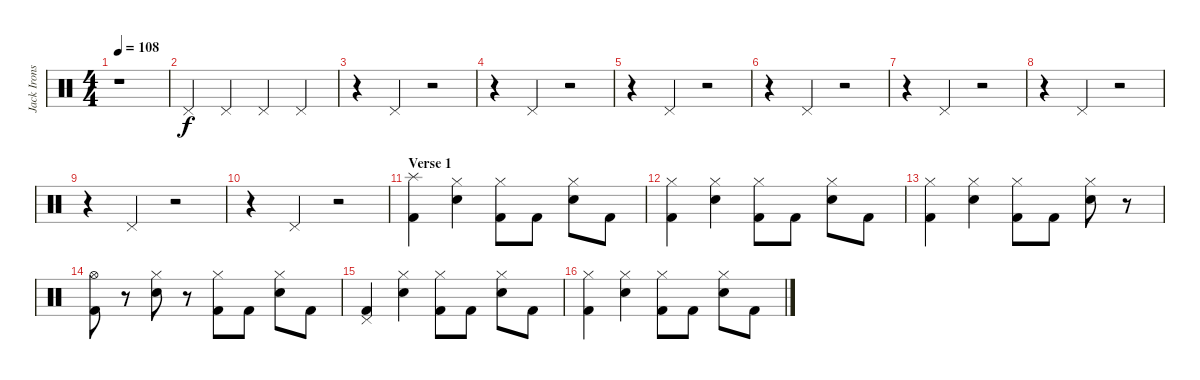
\track ("Jack Irons" "Jack Irons") {instrument percussion}
\staff {score}
\articulation defaults
\ts (4 4)
\tempo 108
\clef neutral
\ks c
r.1{dy f} |
"Pedal Hi-Hat (hit)".4 "Pedal Hi-Hat (hit)".4 "Pedal Hi-Hat (hit)".4 "Pedal Hi-Hat (hit)".4 |
r.4 "Pedal Hi-Hat (hit)".4 r.2 |
r.4 "Pedal Hi-Hat (hit)".4 r.2 |
r.4 "Pedal Hi-Hat (hit)".4 r.2 |
r.4 "Pedal Hi-Hat (hit)".4 r.2 |
r.4 "Pedal Hi-Hat (hit)".4 r.2 |
r.4 "Pedal Hi-Hat (hit)".4 r.2 |
r.4 "Pedal Hi-Hat (hit)".4 r.2 |
r.4 "Pedal Hi-Hat (hit)".4 r.2 |
\section ("" "Verse 1")
("Splash (hit)" "Kick (hit) 2").4 ("Electric Snare (hit)" "Hi-Hat (closed)").4 ("Kick (hit) 2" "Hi-Hat (closed)").8 "Kick (hit) 2".8 ("Electric Snare (hit)" "Hi-Hat (closed)").8 "Kick (hit) 2".8 |
("Kick (hit) 2" "Hi-Hat (closed)").4 ("Electric Snare (hit)" "Hi-Hat (closed)").4 ("Kick (hit) 2" "Hi-Hat (closed)").8 "Kick (hit) 2".8 ("Electric Snare (hit)" "Hi-Hat (closed)").8 "Kick (hit) 2".8 |
("Kick (hit) 2" "Hi-Hat (closed)").4 ("Electric Snare (hit)" "Hi-Hat (closed)").4 ("Kick (hit) 2" "Hi-Hat (closed)").8 "Kick (hit) 2".8 ("Electric Snare (hit)" "Hi-Hat (closed)").8 r.8 |
("Kick (hit) 2" "Hi-Hat (open)").8 r.8 ("Electric Snare (hit)" "Hi-Hat (closed)").8 r.8 ("Kick (hit) 2" "Hi-Hat (closed)").8 "Kick (hit) 2".8 ("Electric Snare (hit)" "Hi-Hat (closed)").8 "Kick (hit) 2".8 |
("Pedal Hi-Hat (hit)" "Kick (hit) 2").4 ("Electric Snare (hit)" "Hi-Hat (closed)").4 ("Kick (hit) 2" "Hi-Hat (closed)").8 "Kick (hit) 2".8 ("Electric Snare (hit)" "Hi-Hat (closed)").8 "Kick (hit) 2".8 |
("Kick (hit) 2" "Hi-Hat (closed)").4 ("Electric Snare (hit)" "Hi-Hat (closed)").4 ("Kick (hit) 2" "Hi-Hat (closed)").8 "Kick (hit) 2".8 ("Electric Snare (hit)" "Hi-Hat (closed)").8 "Kick (hit) 2".8
